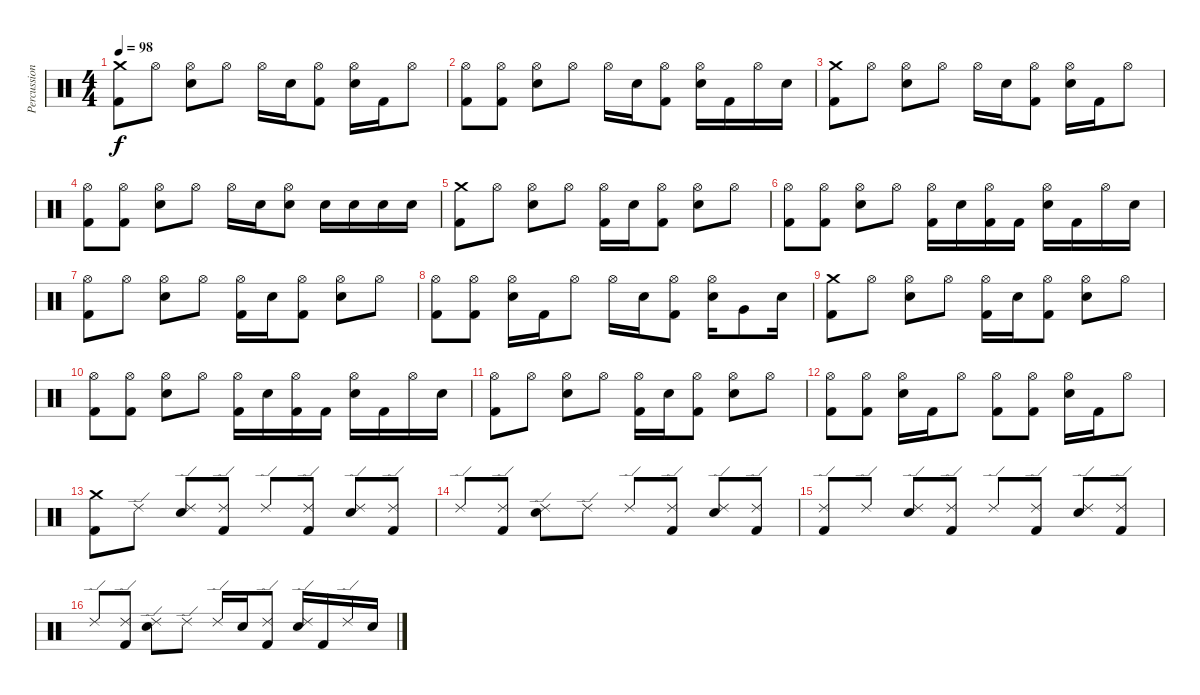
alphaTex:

\track ("Percussion" "Percussion") {instrument percussion}
\staff {score}
\articulation defaults
\ts (4 4)
\tempo 98
\clef neutral
\ks c
("Crash medium (hit)" "Kick (hit) 2").8{dy f} "Hi-Hat (open)".8 ("Hi-Hat (open)" "Electric Snare (hit)").8 "Hi-Hat (open)".8 "Hi-Hat (open)".16 "Electric Snare (hit)".16 ("Hi-Hat (open)" "Kick (hit) 2").8 ("Hi-Hat (open)" "Electric Snare (hit)").16 "Kick (hit) 2".16 "Hi-Hat (open)".8 |
("Hi-Hat (open)" "Kick (hit) 2").8 ("Hi-Hat (open)" "Kick (hit) 2").8 ("Hi-Hat (open)" "Electric Snare (hit)").8 "Hi-Hat (open)".8 "Hi-Hat (open)".16 "Electric Snare (hit)".16 ("Hi-Hat (open)" "Kick (hit) 2").8 ("Hi-Hat (open)" "Electric Snare (hit)").16 "Kick (hit) 2".16 "Hi-Hat (open)".16 "Electric Snare (hit)".16 |
("Crash medium (hit)" "Kick (hit) 2").8 "Hi-Hat (open)".8 ("Hi-Hat (open)" "Electric Snare (hit)").8 "Hi-Hat (open)".8 "Hi-Hat (open)".16 "Electric Snare (hit)".16 ("Hi-Hat (open)" "Kick (hit) 2").8 ("Hi-Hat (open)" "Electric Snare (hit)").16 "Kick (hit) 2".16 "Hi-Hat (open)".8 |
("Hi-Hat (open)" "Kick (hit) 2").8 ("Hi-Hat (open)" "Kick (hit) 2").8 ("Hi-Hat (open)" "Electric Snare (hit)").8 "Hi-Hat (open)".8 "Hi-Hat (open)".16 "Electric Snare (hit)".16 ("Hi-Hat (open)" "Electric Snare (hit)").8 "Electric Snare (hit)".16 "Electric Snare (hit)".16 "Electric Snare (hit)".16 "Electric Snare (hit)".16 |
("Crash medium (hit)" "Kick (hit) 2").8 "Hi-Hat (open)".8 ("Hi-Hat (open)" "Electric Snare (hit)").8 "Hi-Hat (open)".8 ("Hi-Hat (open)" "Kick (hit) 2").16 "Electric Snare (hit)".16 ("Hi-Hat (open)" "Kick (hit) 2").8 ("Hi-Hat (open)" "Electric Snare (hit)").8 "Hi-Hat (open)".8 |
("Hi-Hat (open)" "Kick (hit) 2").8 ("Hi-Hat (open)" "Kick (hit) 2").8 ("Hi-Hat (open)" "Electric Snare (hit)").8 "Hi-Hat (open)".8 ("Hi-Hat (open)" "Kick (hit) 2").16 "Electric Snare (hit)".16 ("Hi-Hat (open)" "Kick (hit) 2").16 "Kick (hit) 2".16 ("Hi-Hat (open)" "Electric Snare (hit)").16 "Kick (hit) 2".16 "Hi-Hat (open)".16 "Electric Snare (hit)".16 |
("Hi-Hat (open)" "Kick (hit) 2").8 "Hi-Hat (open)".8 ("Hi-Hat (open)" "Electric Snare (hit)").8 "Hi-Hat (open)".8 ("Hi-Hat (open)" "Kick (hit) 2").16 "Electric Snare (hit)".16 ("Hi-Hat (open)" "Kick (hit) 2").8 ("Hi-Hat (open)" "Electric Snare (hit)").8 "Hi-Hat (open)".8 |
("Hi-Hat (open)" "Kick (hit) 2").8 ("Hi-Hat (open)" "Kick (hit) 2").8 ("Hi-Hat (open)" "Electric Snare (hit)").16 "Kick (hit) 2".16 "Hi-Hat (open)".8 "Hi-Hat (open)".16 "Electric Snare (hit)".16 ("Hi-Hat (open)" "Kick (hit) 2").8 ("Hi-Hat (open)" "Electric Snare (hit)").16 "Very Low Tom (hit)".8 "Electric Snare (hit)".16 |
("Crash medium (hit)" "Kick (hit) 2").8 "Hi-Hat (open)".8 ("Hi-Hat (open)" "Electric Snare (hit)").8 "Hi-Hat (open)".8 ("Hi-Hat (open)" "Kick (hit) 2").16 "Electric Snare (hit)".16 ("Hi-Hat (open)" "Kick (hit) 2").8 ("Hi-Hat (open)" "Electric Snare (hit)").8 "Hi-Hat (open)".8 |
("Hi-Hat (open)" "Kick (hit) 2").8 ("Hi-Hat (open)" "Kick (hit) 2").8 ("Hi-Hat (open)" "Electric Snare (hit)").8 "Hi-Hat (open)".8 ("Hi-Hat (open)" "Kick (hit) 2").16 "Electric Snare (hit)".16 ("Hi-Hat (open)" "Kick (hit) 2").16 "Kick (hit) 2".16 ("Hi-Hat (open)" "Electric Snare (hit)").16 "Kick (hit) 2".16 "Hi-Hat (open)".16 "Electric Snare (hit)".16 |
("Hi-Hat (open)" "Kick (hit) 2").8 "Hi-Hat (open)".8 ("Hi-Hat (open)" "Electric Snare (hit)").8 "Hi-Hat (open)".8 ("Hi-Hat (open)" "Kick (hit) 2").16 "Electric Snare (hit)".16 ("Hi-Hat (open)" "Kick (hit) 2").8 ("Hi-Hat (open)" "Electric Snare (hit)").8 "Hi-Hat (open)".8 |
("Hi-Hat (open)" "Kick (hit) 2").8 ("Hi-Hat (open)" "Kick (hit) 2").8 ("Hi-Hat (open)" "Electric Snare (hit)").16 "Kick (hit) 2".16 "Hi-Hat (open)".8 ("Hi-Hat (open)" "Kick (hit) 2").8 ("Hi-Hat (open)" "Kick (hit) 2").8 ("Hi-Hat (open)" "Electric Snare (hit)").16 "Kick (hit) 2".16 "Hi-Hat (open)".8 |
("Crash medium (hit)" "Kick (hit) 2").8 "Ride (edge) 2".8 ("Ride (edge) 2" "Electric Snare (hit)").8 ("Ride (edge) 2" "Kick (hit) 2").8 "Ride (edge) 2".8 ("Ride (edge) 2" "Kick (hit) 2").8 ("Ride (edge) 2" "Electric Snare (hit)").8 ("Ride (edge) 2" "Kick (hit) 2").8 |
"Ride (edge) 2".8 ("Ride (edge) 2" "Kick (hit) 2").8 ("Ride (edge) 2" "Electric Snare (hit)").8 "Ride (edge) 2".8 "Ride (edge) 2".8 ("Ride (edge) 2" "Kick (hit) 2").8 ("Ride (edge) 2" "Electric Snare (hit)").8 ("Ride (edge) 2" "Kick (hit) 2").8 |
("Ride (edge) 2" "Kick (hit) 2").8 "Ride (edge) 2".8 ("Ride (edge) 2" "Electric Snare (hit)").8 ("Ride (edge) 2" "Kick (hit) 2").8 "Ride (edge) 2".8 ("Ride (edge) 2" "Kick (hit) 2").8 ("Ride (edge) 2" "Electric Snare (hit)").8 ("Ride (edge) 2" "Kick (hit) 2").8 |
"Ride (edge) 2".8 ("Ride (edge) 2" "Kick (hit) 2").8 ("Ride (edge) 2" "Electric Snare (hit)").8 "Ride (edge) 2".8 "Ride (edge) 2".16 "Electric Snare (hit)".16 ("Ride (edge) 2" "Kick (hit) 2").8 ("Ride (edge) 2" "Electric Snare (hit)").16 "Kick (hit) 2".16 "Ride (edge) 2".16 "Electric Snare (hit)".16
